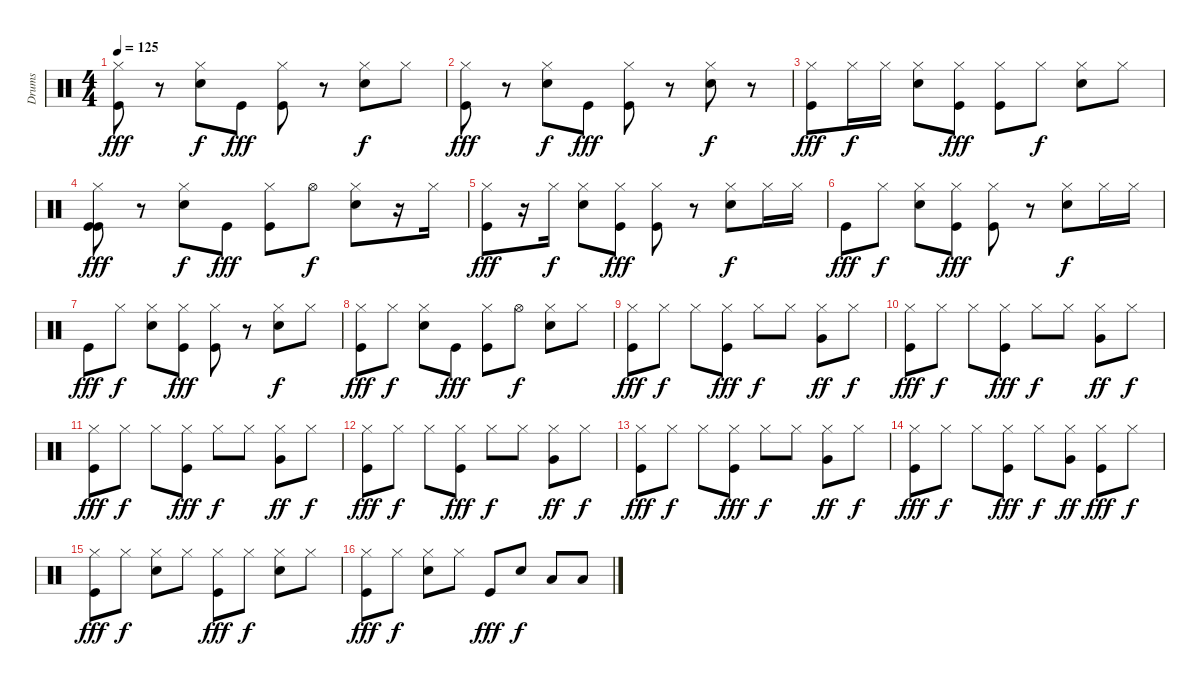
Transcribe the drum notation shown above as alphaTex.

\track ("Drums" "Drums") {instrument percussion}
\staff {score}
\articulation defaults
\ts (4 4)
\tempo 125
\clef neutral
\ks c
("Hi-Hat (closed)" "Kick (hit)").8{dy fff} r.8 ("Hi-Hat (closed)" "Snare (hit) 2").8{dy f} "Kick (hit)".8{dy fff} ("Hi-Hat (closed)" "Kick (hit)").8 r.8 ("Hi-Hat (closed)" "Snare (hit) 2").8{dy f} "Hi-Hat (closed)".8 |
("Hi-Hat (closed)" "Kick (hit)").8{dy fff} r.8 ("Hi-Hat (closed)" "Snare (hit) 2").8{dy f} "Kick (hit)".8{dy fff} ("Hi-Hat (closed)" "Kick (hit)").8 r.8 ("Hi-Hat (closed)" "Snare (hit) 2").8{dy f} r.8 |
("Hi-Hat (closed)" "Kick (hit)").8{dy fff} "Hi-Hat (closed)".16{dy f} "Hi-Hat (closed)".16 ("Hi-Hat (closed)" "Snare (hit) 2").8 ("Hi-Hat (closed)" "Kick (hit)").8{dy fff} ("Hi-Hat (closed)" "Kick (hit)").8 "Hi-Hat (closed)".8{dy f} ("Hi-Hat (closed)" "Snare (hit) 2").8 "Hi-Hat (closed)".8 |
("Hi-Hat (closed)" "Kick (hit)" "Kick (hit)").8{dy fff} r.8 ("Hi-Hat (closed)" "Snare (hit) 2").8{dy f} "Kick (hit)".8{dy fff} ("Hi-Hat (closed)" "Kick (hit)").8 "Hi-Hat (open)".8{dy f} ("Hi-Hat (closed)" "Snare (hit) 2").8 r.16 "Hi-Hat (closed)".16 |
("Hi-Hat (closed)" "Kick (hit)").8{dy fff} r.16 "Hi-Hat (closed)".16{dy f} ("Hi-Hat (closed)" "Snare (hit) 2").8 ("Hi-Hat (closed)" "Kick (hit)").8{dy fff} ("Hi-Hat (closed)" "Kick (hit)").8 r.8 ("Hi-Hat (closed)" "Snare (hit) 2").8{dy f} "Hi-Hat (closed)".16 "Hi-Hat (closed)".16 |
"Kick (hit)".8{dy fff} "Hi-Hat (closed)".8{dy f} ("Hi-Hat (closed)" "Snare (hit) 2").8 ("Hi-Hat (closed)" "Kick (hit)").8{dy fff} ("Hi-Hat (closed)" "Kick (hit)").8 r.8 ("Hi-Hat (closed)" "Snare (hit) 2").8{dy f} "Hi-Hat (closed)".16 "Hi-Hat (closed)".16 |
"Kick (hit)".8{dy fff} "Hi-Hat (closed)".8{dy f} ("Hi-Hat (closed)" "Snare (hit) 2").8 ("Hi-Hat (closed)" "Kick (hit)").8{dy fff} ("Hi-Hat (closed)" "Kick (hit)").8 r.8 ("Hi-Hat (closed)" "Snare (hit) 2").8{dy f} "Hi-Hat (closed)".8 |
("Hi-Hat (closed)" "Kick (hit)").8{dy fff} "Hi-Hat (closed)".8{dy f} ("Hi-Hat (closed)" "Snare (hit) 2").8 "Kick (hit)".8{dy fff} ("Hi-Hat (closed)" "Kick (hit)").8 "Hi-Hat (open)".8{dy f} ("Hi-Hat (closed)" "Snare (hit) 2").8 "Hi-Hat (closed)".8 |
("Hi-Hat (closed)" "Kick (hit)").8{dy fff} "Hi-Hat (closed)".8{dy f} "Hi-Hat (closed)".8 ("Hi-Hat (closed)" "Kick (hit)").8{dy fff} "Hi-Hat (closed)".8{dy f} "Hi-Hat (closed)".8 ("Hi-Hat (closed)" "Very Low Tom (hit)").8{dy ff} "Hi-Hat (closed)".8{dy f} |
("Hi-Hat (closed)" "Kick (hit)").8{dy fff} "Hi-Hat (closed)".8{dy f} "Hi-Hat (closed)".8 ("Hi-Hat (closed)" "Kick (hit)").8{dy fff} "Hi-Hat (closed)".8{dy f} "Hi-Hat (closed)".8 ("Hi-Hat (closed)" "Very Low Tom (hit)").8{dy ff} "Hi-Hat (closed)".8{dy f} |
("Hi-Hat (closed)" "Kick (hit)").8{dy fff} "Hi-Hat (closed)".8{dy f} "Hi-Hat (closed)".8 ("Hi-Hat (closed)" "Kick (hit)").8{dy fff} "Hi-Hat (closed)".8{dy f} "Hi-Hat (closed)".8 ("Hi-Hat (closed)" "Very Low Tom (hit)").8{dy ff} "Hi-Hat (closed)".8{dy f} |
("Hi-Hat (closed)" "Kick (hit)").8{dy fff} "Hi-Hat (closed)".8{dy f} "Hi-Hat (closed)".8 ("Hi-Hat (closed)" "Kick (hit)").8{dy fff} "Hi-Hat (closed)".8{dy f} "Hi-Hat (closed)".8 ("Hi-Hat (closed)" "Very Low Tom (hit)").8{dy ff} "Hi-Hat (closed)".8{dy f} |
("Hi-Hat (closed)" "Kick (hit)").8{dy fff} "Hi-Hat (closed)".8{dy f} "Hi-Hat (closed)".8 ("Hi-Hat (closed)" "Kick (hit)").8{dy fff} "Hi-Hat (closed)".8{dy f} "Hi-Hat (closed)".8 ("Hi-Hat (closed)" "Very Low Tom (hit)").8{dy ff} "Hi-Hat (closed)".8{dy f} |
("Hi-Hat (closed)" "Kick (hit)").8{dy fff} "Hi-Hat (closed)".8{dy f} "Hi-Hat (closed)".8 ("Hi-Hat (closed)" "Kick (hit)").8{dy fff} "Hi-Hat (closed)".8{dy f} ("Hi-Hat (closed)" "Very Low Tom (hit)").8{dy ff} ("Hi-Hat (closed)" "Kick (hit)").8{dy fff} "Hi-Hat (closed)".8{dy f} |
("Hi-Hat (closed)" "Kick (hit)").8{dy fff} "Hi-Hat (closed)".8{dy f} ("Hi-Hat (closed)" "Snare (hit) 2").8 "Hi-Hat (closed)".8 ("Hi-Hat (closed)" "Kick (hit)").8{dy fff} "Hi-Hat (closed)".8{dy f} ("Hi-Hat (closed)" "Snare (hit) 2").8 "Hi-Hat (closed)".8 |
("Hi-Hat (closed)" "Kick (hit)").8{dy fff} "Hi-Hat (closed)".8{dy f} ("Hi-Hat (closed)" "Snare (hit) 2").8 "Hi-Hat (closed)".8 "Kick (hit)".8{dy fff} "Electric Snare (hit)".8{dy f} "Low Tom (hit)".8 "Low Floor Tom (hit)".8
